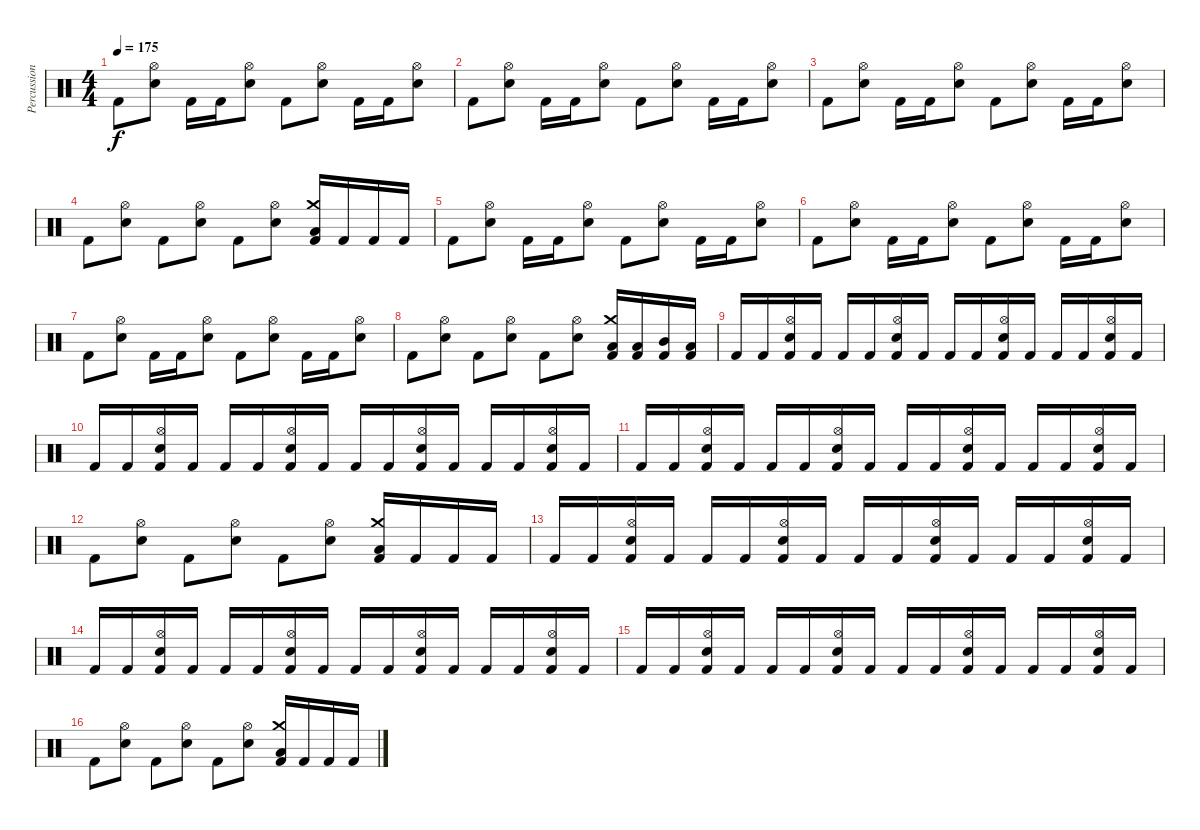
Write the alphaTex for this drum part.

\track ("Percussion" "Percussion") {instrument percussion}
\staff {score}
\articulation defaults
\ts (4 4)
\tempo 175
\clef neutral
\ks c "Kick (hit) 2".8{dy f}
("Hi-Hat (open)" "Electric Snare (hit)").8 "Kick (hit) 2".16 "Kick (hit) 2".16 ("Hi-Hat (open)" "Electric Snare (hit)").8 "Kick (hit) 2".8 ("Hi-Hat (open)" "Electric Snare (hit)").8 "Kick (hit) 2".16 "Kick (hit) 2".16 ("Hi-Hat (open)" "Electric Snare (hit)").8 |
"Kick (hit) 2".8 ("Hi-Hat (open)" "Electric Snare (hit)").8 "Kick (hit) 2".16 "Kick (hit) 2".16 ("Hi-Hat (open)" "Electric Snare (hit)").8 "Kick (hit) 2".8 ("Hi-Hat (open)" "Electric Snare (hit)").8 "Kick (hit) 2".16 "Kick (hit) 2".16 ("Hi-Hat (open)" "Electric Snare (hit)").8 |
"Kick (hit) 2".8 ("Hi-Hat (open)" "Electric Snare (hit)").8 "Kick (hit) 2".16 "Kick (hit) 2".16 ("Hi-Hat (open)" "Electric Snare (hit)").8 "Kick (hit) 2".8 ("Hi-Hat (open)" "Electric Snare (hit)").8 "Kick (hit) 2".16 "Kick (hit) 2".16 ("Hi-Hat (open)" "Electric Snare (hit)").8 |
"Kick (hit) 2".8 ("Hi-Hat (open)" "Electric Snare (hit)").8 "Kick (hit) 2".8 ("Hi-Hat (open)" "Electric Snare (hit)").8 "Kick (hit) 2".8 ("Hi-Hat (open)" "Electric Snare (hit)").8 ("Crash medium (hit)" "Low Tom (hit)" "Kick (hit) 2").16 "Kick (hit) 2".16 "Kick (hit) 2".16 "Kick (hit) 2".16 |
"Kick (hit) 2".8 ("Hi-Hat (open)" "Electric Snare (hit)").8 "Kick (hit) 2".16 "Kick (hit) 2".16 ("Hi-Hat (open)" "Electric Snare (hit)").8 "Kick (hit) 2".8 ("Hi-Hat (open)" "Electric Snare (hit)").8 "Kick (hit) 2".16 "Kick (hit) 2".16 ("Hi-Hat (open)" "Electric Snare (hit)").8 |
"Kick (hit) 2".8 ("Hi-Hat (open)" "Electric Snare (hit)").8 "Kick (hit) 2".16 "Kick (hit) 2".16 ("Hi-Hat (open)" "Electric Snare (hit)").8 "Kick (hit) 2".8 ("Hi-Hat (open)" "Electric Snare (hit)").8 "Kick (hit) 2".16 "Kick (hit) 2".16 ("Hi-Hat (open)" "Electric Snare (hit)").8 |
"Kick (hit) 2".8 ("Hi-Hat (open)" "Electric Snare (hit)").8 "Kick (hit) 2".16 "Kick (hit) 2".16 ("Hi-Hat (open)" "Electric Snare (hit)").8 "Kick (hit) 2".8 ("Hi-Hat (open)" "Electric Snare (hit)").8 "Kick (hit) 2".16 "Kick (hit) 2".16 ("Hi-Hat (open)" "Electric Snare (hit)").8 |
"Kick (hit) 2".8 ("Hi-Hat (open)" "Electric Snare (hit)").8 "Kick (hit) 2".8 ("Hi-Hat (open)" "Electric Snare (hit)").8 "Kick (hit) 2".8 ("Hi-Hat (open)" "Electric Snare (hit)").8 ("Crash medium (hit)" "Low Tom (hit)" "Kick (hit) 2").16 ("Low Tom (hit)" "Kick (hit) 2").16 ("Mid Tom (hit)" "Kick (hit) 2").16 ("Low Tom (hit)" "Kick (hit) 2").16 |
"Kick (hit) 2".16 "Kick (hit) 2".16 ("Hi-Hat (open)" "Electric Snare (hit)" "Kick (hit) 2").16 "Kick (hit) 2".16 "Kick (hit) 2".16 "Kick (hit) 2".16 ("Hi-Hat (open)" "Electric Snare (hit)" "Kick (hit) 2").16 "Kick (hit) 2".16 "Kick (hit) 2".16 "Kick (hit) 2".16 ("Hi-Hat (open)" "Electric Snare (hit)" "Kick (hit) 2").16 "Kick (hit) 2".16 "Kick (hit) 2".16 "Kick (hit) 2".16 ("Hi-Hat (open)" "Electric Snare (hit)" "Kick (hit) 2").16 "Kick (hit) 2".16 |
"Kick (hit) 2".16 "Kick (hit) 2".16 ("Hi-Hat (open)" "Electric Snare (hit)" "Kick (hit) 2").16 "Kick (hit) 2".16 "Kick (hit) 2".16 "Kick (hit) 2".16 ("Hi-Hat (open)" "Electric Snare (hit)" "Kick (hit) 2").16 "Kick (hit) 2".16 "Kick (hit) 2".16 "Kick (hit) 2".16 ("Hi-Hat (open)" "Electric Snare (hit)" "Kick (hit) 2").16 "Kick (hit) 2".16 "Kick (hit) 2".16 "Kick (hit) 2".16 ("Hi-Hat (open)" "Electric Snare (hit)" "Kick (hit) 2").16 "Kick (hit) 2".16 |
"Kick (hit) 2".16 "Kick (hit) 2".16 ("Hi-Hat (open)" "Electric Snare (hit)" "Kick (hit) 2").16 "Kick (hit) 2".16 "Kick (hit) 2".16 "Kick (hit) 2".16 ("Hi-Hat (open)" "Electric Snare (hit)" "Kick (hit) 2").16 "Kick (hit) 2".16 "Kick (hit) 2".16 "Kick (hit) 2".16 ("Hi-Hat (open)" "Electric Snare (hit)" "Kick (hit) 2").16 "Kick (hit) 2".16 "Kick (hit) 2".16 "Kick (hit) 2".16 ("Hi-Hat (open)" "Electric Snare (hit)" "Kick (hit) 2").16 "Kick (hit) 2".16 |
"Kick (hit) 2".8 ("Hi-Hat (open)" "Electric Snare (hit)").8 "Kick (hit) 2".8 ("Hi-Hat (open)" "Electric Snare (hit)").8 "Kick (hit) 2".8 ("Hi-Hat (open)" "Electric Snare (hit)").8 ("Crash medium (hit)" "Low Tom (hit)" "Kick (hit) 2").16 "Kick (hit) 2".16 "Kick (hit) 2".16 "Kick (hit) 2".16 |
"Kick (hit) 2".16 "Kick (hit) 2".16 ("Hi-Hat (open)" "Electric Snare (hit)" "Kick (hit) 2").16 "Kick (hit) 2".16 "Kick (hit) 2".16 "Kick (hit) 2".16 ("Hi-Hat (open)" "Electric Snare (hit)" "Kick (hit) 2").16 "Kick (hit) 2".16 "Kick (hit) 2".16 "Kick (hit) 2".16 ("Hi-Hat (open)" "Electric Snare (hit)" "Kick (hit) 2").16 "Kick (hit) 2".16 "Kick (hit) 2".16 "Kick (hit) 2".16 ("Hi-Hat (open)" "Electric Snare (hit)" "Kick (hit) 2").16 "Kick (hit) 2".16 |
"Kick (hit) 2".16 "Kick (hit) 2".16 ("Hi-Hat (open)" "Electric Snare (hit)" "Kick (hit) 2").16 "Kick (hit) 2".16 "Kick (hit) 2".16 "Kick (hit) 2".16 ("Hi-Hat (open)" "Electric Snare (hit)" "Kick (hit) 2").16 "Kick (hit) 2".16 "Kick (hit) 2".16 "Kick (hit) 2".16 ("Hi-Hat (open)" "Electric Snare (hit)" "Kick (hit) 2").16 "Kick (hit) 2".16 "Kick (hit) 2".16 "Kick (hit) 2".16 ("Hi-Hat (open)" "Electric Snare (hit)" "Kick (hit) 2").16 "Kick (hit) 2".16 |
"Kick (hit) 2".16 "Kick (hit) 2".16 ("Hi-Hat (open)" "Electric Snare (hit)" "Kick (hit) 2").16 "Kick (hit) 2".16 "Kick (hit) 2".16 "Kick (hit) 2".16 ("Hi-Hat (open)" "Electric Snare (hit)" "Kick (hit) 2").16 "Kick (hit) 2".16 "Kick (hit) 2".16 "Kick (hit) 2".16 ("Hi-Hat (open)" "Electric Snare (hit)" "Kick (hit) 2").16 "Kick (hit) 2".16 "Kick (hit) 2".16 "Kick (hit) 2".16 ("Hi-Hat (open)" "Electric Snare (hit)" "Kick (hit) 2").16 "Kick (hit) 2".16 |
"Kick (hit) 2".8 ("Hi-Hat (open)" "Electric Snare (hit)").8 "Kick (hit) 2".8 ("Hi-Hat (open)" "Electric Snare (hit)").8 "Kick (hit) 2".8 ("Hi-Hat (open)" "Electric Snare (hit)").8 ("Crash medium (hit)" "Low Tom (hit)" "Kick (hit) 2").16 "Kick (hit) 2".16 "Kick (hit) 2".16 "Kick (hit) 2".16
